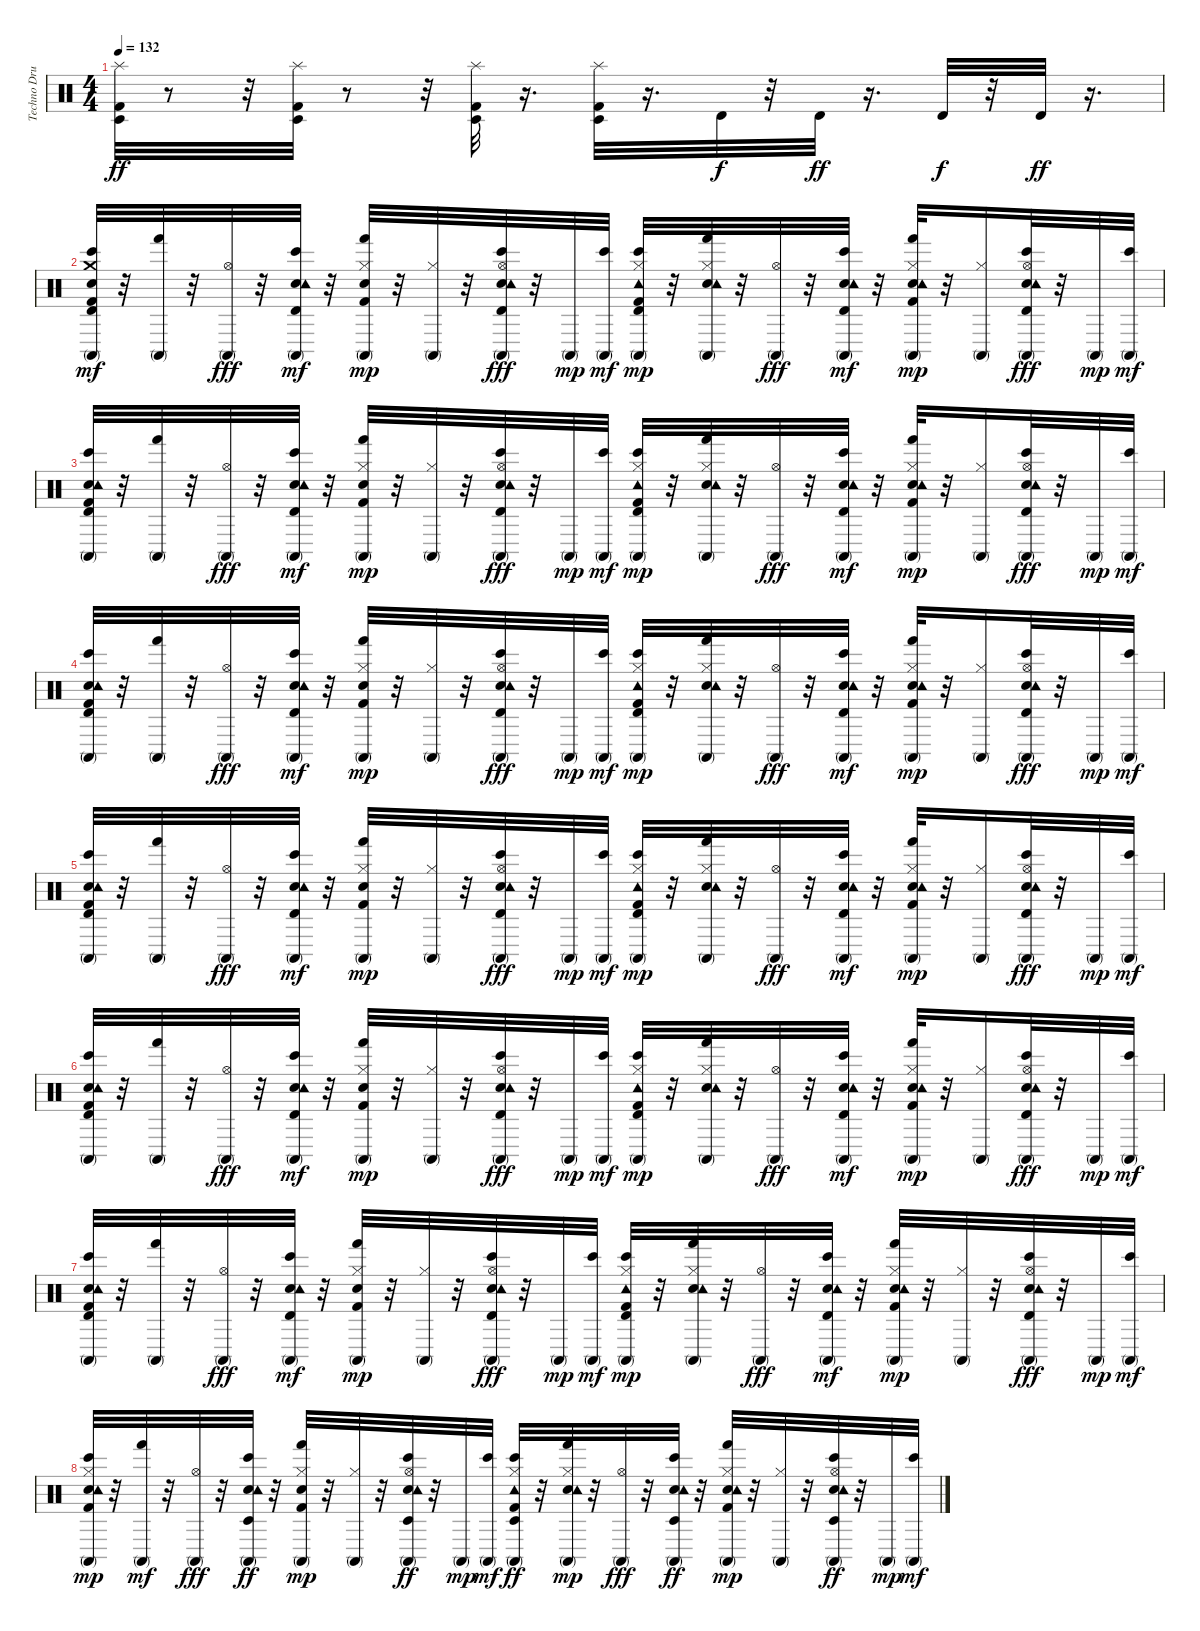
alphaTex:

\track ("Techno Drums" "Techno Dru") {instrument percussion}
\staff {score}
\articulation defaults
\ts (4 4)
\tempo 132
\clef neutral
\ks c
("Kick (hit) 2" "Timbale low (hit)" "Splash (hit)").32{dy ff} r.8 r.32 ("Kick (hit) 2" "Timbale low (hit)" "Splash (hit)").32 r.8 r.32 ("Kick (hit) 2" "Timbale low (hit)" "Splash (hit)").32 r.16{d} ("Timbale low (hit)" "Splash (hit)" "Kick (hit) 2").32 r.16{d} "Timbale high (hit)".32{dy f} r.32 "Timbale high (hit)".32{dy ff} r.16{d} "Timbale high (hit)".32{dy f} r.32 "Timbale high (hit)".32{dy ff} r.16{d} |
("Kick (hit) 2" "Hand Clap (hit)" "Crash medium (hit)" "Conga high (mute)" "Bongo High (hit)" "Timbale high (hit)").32{dy mf} r.32 ("Conga high (mute)" "Hand (hit)").32 r.32 ("Conga high (mute)" "Hi-Hat (open)").32{dy fff} r.32 ("Hand Clap (hit)" "Tambourine (hit)" "Conga high (mute)" "Bongo High (hit)" "Timbale high (hit)").32{dy mf} r.32 ("Kick (hit) 2" "Hand Clap (hit)" "Conga high (mute)" "Hand (hit)" "Hi-Hat (closed)").32{dy mp} r.32 ("Conga high (mute)" "Hi-Hat (closed)").32 r.32 ("Hand Clap (hit)" "Tambourine (hit)" "Conga high (mute)" "Bongo High (hit)" "Timbale high (hit)" "Hi-Hat (open)").32{dy fff} r.32 "Conga high (mute)".32{dy mp} ("Conga high (mute)" "Bongo High (hit)").32{dy mf} ("Kick (hit) 2" "Tambourine (hit)" "Conga high (mute)" "Bongo High (hit)" "Timbale high (hit)" "Hi-Hat (closed)").32{dy mp} r.32 ("Hand Clap (hit)" "Tambourine (hit)" "Conga high (mute)" "Hand (hit)" "Hi-Hat (closed)").32 r.32 ("Conga high (mute)" "Hi-Hat (open)").32{dy fff} r.32 ("Hand Clap (hit)" "Tambourine (hit)" "Conga high (mute)" "Bongo High (hit)" "Timbale high (hit)").32{dy mf} r.32 ("Kick (hit) 2" "Hand Clap (hit)" "Tambourine (hit)" "Conga high (mute)" "Hand (hit)" "Hi-Hat (closed)").32{dy mp} r.32 ("Conga high (mute)" "Hi-Hat (closed)").16 ("Hand Clap (hit)" "Tambourine (hit)" "Conga high (mute)" "Bongo High (hit)" "Timbale high (hit)" "Hi-Hat (open)").32{dy fff} r.32 "Conga high (mute)".32{dy mp} ("Conga high (mute)" "Bongo High (hit)").32{dy mf} |
("Kick (hit) 2" "Hand Clap (hit)" "Tambourine (hit)" "Conga high (mute)" "Bongo High (hit)" "Timbale high (hit)").32 r.32 ("Conga high (mute)" "Hand (hit)").32 r.32 ("Conga high (mute)" "Hi-Hat (open)").32{dy fff} r.32 ("Hand Clap (hit)" "Tambourine (hit)" "Conga high (mute)" "Bongo High (hit)" "Timbale high (hit)").32{dy mf} r.32 ("Kick (hit) 2" "Hand Clap (hit)" "Conga high (mute)" "Hand (hit)" "Hi-Hat (closed)").32{dy mp} r.32 ("Conga high (mute)" "Hi-Hat (closed)").32 r.32 ("Hand Clap (hit)" "Tambourine (hit)" "Conga high (mute)" "Bongo High (hit)" "Timbale high (hit)" "Hi-Hat (open)").32{dy fff} r.32 "Conga high (mute)".32{dy mp} ("Conga high (mute)" "Bongo High (hit)").32{dy mf} ("Kick (hit) 2" "Tambourine (hit)" "Conga high (mute)" "Bongo High (hit)" "Timbale high (hit)" "Hi-Hat (closed)").32{dy mp} r.32 ("Hand Clap (hit)" "Tambourine (hit)" "Conga high (mute)" "Hand (hit)" "Hi-Hat (closed)").32 r.32 ("Conga high (mute)" "Hi-Hat (open)").32{dy fff} r.32 ("Hand Clap (hit)" "Tambourine (hit)" "Conga high (mute)" "Bongo High (hit)" "Timbale high (hit)").32{dy mf} r.32 ("Kick (hit) 2" "Hand Clap (hit)" "Tambourine (hit)" "Conga high (mute)" "Hand (hit)" "Hi-Hat (closed)").32{dy mp} r.32 ("Conga high (mute)" "Hi-Hat (closed)").16 ("Hand Clap (hit)" "Tambourine (hit)" "Conga high (mute)" "Bongo High (hit)" "Timbale high (hit)" "Hi-Hat (open)").32{dy fff} r.32 "Conga high (mute)".32{dy mp} ("Conga high (mute)" "Bongo High (hit)").32{dy mf} |
("Kick (hit) 2" "Hand Clap (hit)" "Tambourine (hit)" "Conga high (mute)" "Bongo High (hit)" "Timbale high (hit)").32 r.32 ("Conga high (mute)" "Hand (hit)").32 r.32 ("Conga high (mute)" "Hi-Hat (open)").32{dy fff} r.32 ("Hand Clap (hit)" "Tambourine (hit)" "Conga high (mute)" "Bongo High (hit)" "Timbale high (hit)").32{dy mf} r.32 ("Kick (hit) 2" "Hand Clap (hit)" "Conga high (mute)" "Hand (hit)" "Hi-Hat (closed)").32{dy mp} r.32 ("Conga high (mute)" "Hi-Hat (closed)").32 r.32 ("Hand Clap (hit)" "Tambourine (hit)" "Conga high (mute)" "Bongo High (hit)" "Timbale high (hit)" "Hi-Hat (open)").32{dy fff} r.32 "Conga high (mute)".32{dy mp} ("Conga high (mute)" "Bongo High (hit)").32{dy mf} ("Kick (hit) 2" "Tambourine (hit)" "Conga high (mute)" "Bongo High (hit)" "Timbale high (hit)" "Hi-Hat (closed)").32{dy mp} r.32 ("Hand Clap (hit)" "Tambourine (hit)" "Conga high (mute)" "Hand (hit)" "Hi-Hat (closed)").32 r.32 ("Conga high (mute)" "Hi-Hat (open)").32{dy fff} r.32 ("Hand Clap (hit)" "Tambourine (hit)" "Conga high (mute)" "Bongo High (hit)" "Timbale high (hit)").32{dy mf} r.32 ("Kick (hit) 2" "Hand Clap (hit)" "Tambourine (hit)" "Conga high (mute)" "Hand (hit)" "Hi-Hat (closed)").32{dy mp} r.32 ("Conga high (mute)" "Hi-Hat (closed)").16 ("Hand Clap (hit)" "Tambourine (hit)" "Conga high (mute)" "Bongo High (hit)" "Timbale high (hit)" "Hi-Hat (open)").32{dy fff} r.32 "Conga high (mute)".32{dy mp} ("Conga high (mute)" "Bongo High (hit)").32{dy mf} |
("Kick (hit) 2" "Hand Clap (hit)" "Tambourine (hit)" "Conga high (mute)" "Bongo High (hit)" "Timbale high (hit)").32 r.32 ("Conga high (mute)" "Hand (hit)").32 r.32 ("Conga high (mute)" "Hi-Hat (open)").32{dy fff} r.32 ("Hand Clap (hit)" "Tambourine (hit)" "Conga high (mute)" "Bongo High (hit)" "Timbale high (hit)").32{dy mf} r.32 ("Kick (hit) 2" "Hand Clap (hit)" "Conga high (mute)" "Hand (hit)" "Hi-Hat (closed)").32{dy mp} r.32 ("Conga high (mute)" "Hi-Hat (closed)").32 r.32 ("Hand Clap (hit)" "Tambourine (hit)" "Conga high (mute)" "Bongo High (hit)" "Timbale high (hit)" "Hi-Hat (open)").32{dy fff} r.32 "Conga high (mute)".32{dy mp} ("Conga high (mute)" "Bongo High (hit)").32{dy mf} ("Kick (hit) 2" "Tambourine (hit)" "Conga high (mute)" "Bongo High (hit)" "Timbale high (hit)" "Hi-Hat (closed)").32{dy mp} r.32 ("Hand Clap (hit)" "Tambourine (hit)" "Conga high (mute)" "Hand (hit)" "Hi-Hat (closed)").32 r.32 ("Conga high (mute)" "Hi-Hat (open)").32{dy fff} r.32 ("Hand Clap (hit)" "Tambourine (hit)" "Conga high (mute)" "Bongo High (hit)" "Timbale high (hit)").32{dy mf} r.32 ("Kick (hit) 2" "Hand Clap (hit)" "Tambourine (hit)" "Conga high (mute)" "Hand (hit)" "Hi-Hat (closed)").32{dy mp} r.32 ("Conga high (mute)" "Hi-Hat (closed)").16 ("Hand Clap (hit)" "Tambourine (hit)" "Conga high (mute)" "Bongo High (hit)" "Timbale high (hit)" "Hi-Hat (open)").32{dy fff} r.32 "Conga high (mute)".32{dy mp} ("Conga high (mute)" "Bongo High (hit)").32{dy mf} |
("Kick (hit) 2" "Hand Clap (hit)" "Tambourine (hit)" "Conga high (mute)" "Bongo High (hit)" "Timbale high (hit)").32 r.32 ("Conga high (mute)" "Hand (hit)").32 r.32 ("Conga high (mute)" "Hi-Hat (open)").32{dy fff} r.32 ("Hand Clap (hit)" "Tambourine (hit)" "Conga high (mute)" "Bongo High (hit)" "Timbale high (hit)").32{dy mf} r.32 ("Kick (hit) 2" "Hand Clap (hit)" "Conga high (mute)" "Hand (hit)" "Hi-Hat (closed)").32{dy mp} r.32 ("Conga high (mute)" "Hi-Hat (closed)").32 r.32 ("Hand Clap (hit)" "Tambourine (hit)" "Conga high (mute)" "Bongo High (hit)" "Timbale high (hit)" "Hi-Hat (open)").32{dy fff} r.32 "Conga high (mute)".32{dy mp} ("Conga high (mute)" "Bongo High (hit)").32{dy mf} ("Kick (hit) 2" "Tambourine (hit)" "Conga high (mute)" "Bongo High (hit)" "Timbale high (hit)" "Hi-Hat (closed)").32{dy mp} r.32 ("Hand Clap (hit)" "Tambourine (hit)" "Conga high (mute)" "Hand (hit)" "Hi-Hat (closed)").32 r.32 ("Conga high (mute)" "Hi-Hat (open)").32{dy fff} r.32 ("Hand Clap (hit)" "Tambourine (hit)" "Conga high (mute)" "Bongo High (hit)" "Timbale high (hit)").32{dy mf} r.32 ("Kick (hit) 2" "Hand Clap (hit)" "Tambourine (hit)" "Conga high (mute)" "Hand (hit)" "Hi-Hat (closed)").32{dy mp} r.32 ("Conga high (mute)" "Hi-Hat (closed)").16 ("Hand Clap (hit)" "Tambourine (hit)" "Conga high (mute)" "Bongo High (hit)" "Timbale high (hit)" "Hi-Hat (open)").32{dy fff} r.32 "Conga high (mute)".32{dy mp} ("Conga high (mute)" "Bongo High (hit)").32{dy mf} |
("Kick (hit) 2" "Hand Clap (hit)" "Tambourine (hit)" "Conga high (mute)" "Bongo High (hit)" "Timbale high (hit)").32 r.32 ("Conga high (mute)" "Hand (hit)").32 r.32 ("Conga high (mute)" "Hi-Hat (open)").32{dy fff} r.32 ("Hand Clap (hit)" "Tambourine (hit)" "Conga high (mute)" "Bongo High (hit)" "Timbale high (hit)").32{dy mf} r.32 ("Kick (hit) 2" "Hand Clap (hit)" "Conga high (mute)" "Hand (hit)" "Hi-Hat (closed)").32{dy mp} r.32 ("Conga high (mute)" "Hi-Hat (closed)").32 r.32 ("Hand Clap (hit)" "Tambourine (hit)" "Conga high (mute)" "Bongo High (hit)" "Timbale high (hit)" "Hi-Hat (open)").32{dy fff} r.32 "Conga high (mute)".32{dy mp} ("Conga high (mute)" "Bongo High (hit)").32{dy mf} ("Kick (hit) 2" "Tambourine (hit)" "Conga high (mute)" "Bongo High (hit)" "Timbale high (hit)" "Hi-Hat (closed)").32{dy mp} r.32 ("Hand Clap (hit)" "Tambourine (hit)" "Conga high (mute)" "Hand (hit)" "Hi-Hat (closed)").32 r.32 ("Conga high (mute)" "Hi-Hat (open)").32{dy fff} r.32 ("Hand Clap (hit)" "Tambourine (hit)" "Conga high (mute)" "Bongo High (hit)" "Timbale high (hit)").32{dy mf} r.32 ("Kick (hit) 2" "Hand Clap (hit)" "Tambourine (hit)" "Conga high (mute)" "Hand (hit)" "Hi-Hat (closed)").32{dy mp} r.32 ("Conga high (mute)" "Hi-Hat (closed)").32 r.32 ("Hand Clap (hit)" "Tambourine (hit)" "Conga high (mute)" "Bongo High (hit)" "Timbale high (hit)" "Hi-Hat (open)").32{dy fff} r.32 "Conga high (mute)".32{dy mp} ("Conga high (mute)" "Bongo High (hit)").32{dy mf} |
("Kick (hit) 2" "Hand Clap (hit)" "Tambourine (hit)" "Conga high (mute)" "Bongo High (hit)" "Hi-Hat (closed)").32{dy mp} r.32 ("Conga high (mute)" "Hand (hit)").32{dy mf} r.32 ("Conga high (mute)" "Hi-Hat (open)").32{dy fff} r.32 ("Hand Clap (hit)" "Tambourine (hit)" "Conga high (mute)" "Bongo High (hit)" "Timbale low (hit)").32{dy ff} r.32 ("Kick (hit) 2" "Hand Clap (hit)" "Conga high (mute)" "Hand (hit)" "Hi-Hat (closed)").32{dy mp} r.32 ("Conga high (mute)" "Hi-Hat (closed)").32 r.32 ("Hand Clap (hit)" "Tambourine (hit)" "Conga high (mute)" "Bongo High (hit)" "Hi-Hat (open)" "Timbale low (hit)").32{dy ff} r.32 "Conga high (mute)".32{dy mp} ("Conga high (mute)" "Bongo High (hit)").32{dy mf} ("Kick (hit) 2" "Tambourine (hit)" "Conga high (mute)" "Bongo High (hit)" "Hi-Hat (closed)" "Timbale low (hit)").32{dy ff} r.32 ("Hand Clap (hit)" "Tambourine (hit)" "Conga high (mute)" "Hand (hit)" "Hi-Hat (closed)").32{dy mp} r.32 ("Conga high (mute)" "Hi-Hat (open)").32{dy fff} r.32 ("Hand Clap (hit)" "Tambourine (hit)" "Conga high (mute)" "Bongo High (hit)" "Timbale low (hit)").32{dy ff} r.32 ("Kick (hit) 2" "Hand Clap (hit)" "Tambourine (hit)" "Conga high (mute)" "Hand (hit)" "Hi-Hat (closed)").32{dy mp} r.32 ("Conga high (mute)" "Hi-Hat (closed)").32 r.32 ("Hand Clap (hit)" "Tambourine (hit)" "Conga high (mute)" "Bongo High (hit)" "Hi-Hat (open)" "Timbale low (hit)").32{dy ff} r.32 "Conga high (mute)".32{dy mp} ("Conga high (mute)" "Bongo High (hit)").32{dy mf}
